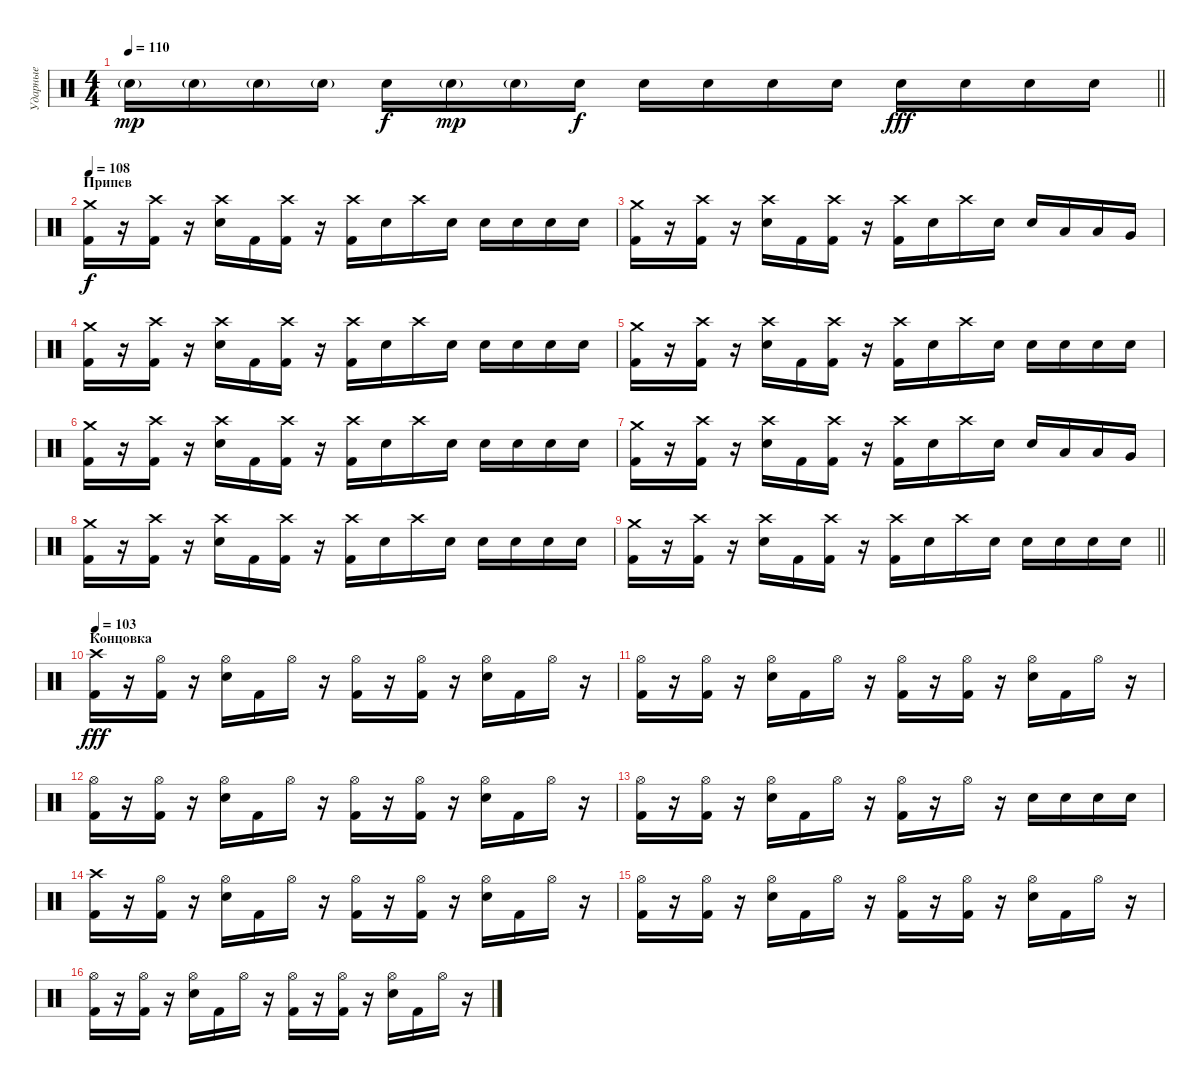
\track ("Ударные" "Ударные") {instrument percussion}
\staff {score}
\articulation defaults
\ts (4 4)
\tempo 110
\clef neutral
\barLineRight lightlight
\ks c "Electric Snare (hit)"{g}.16{dy mp} "Electric Snare (hit)"{g}.16 "Electric Snare (hit)"{g}.16 "Electric Snare (hit)"{g}.16 "Electric Snare (hit)".16{dy f} "Electric Snare (hit)"{g}.16{dy mp} "Electric Snare (hit)"{g}.16 "Electric Snare (hit)".16{dy f} "Electric Snare (hit)".16 "Electric Snare (hit)".16 "Electric Snare (hit)".16 "Electric Snare (hit)".16 "Electric Snare (hit)".16{dy fff} "Electric Snare (hit)".16 "Electric Snare (hit)".16 "Electric Snare (hit)".16
|
\section ("" "Припев")
\tempo 108
("Crash medium (hit)" "Kick (hit) 2").16{dy f} r.16 ("Crash high (hit)" "Kick (hit) 2").16 r.16 ("Crash high (hit)" "Electric Snare (hit)").16 "Kick (hit) 2".16 ("Crash high (hit)" "Kick (hit) 2").16 r.16 ("Crash high (hit)" "Kick (hit) 2").16 "Electric Snare (hit)".16 "Crash high (hit)".16 "Electric Snare (hit)".16 "Electric Snare (hit)".16 "Electric Snare (hit)".16 "Electric Snare (hit)".16 "Electric Snare (hit)".16 |
("Crash medium (hit)" "Kick (hit) 2").16 r.16 ("Crash high (hit)" "Kick (hit) 2").16 r.16 ("Crash high (hit)" "Electric Snare (hit)").16 "Kick (hit) 2".16 ("Crash high (hit)" "Kick (hit) 2").16 r.16 ("Crash high (hit)" "Kick (hit) 2").16 "Electric Snare (hit)".16 "Crash high (hit)".16 "Electric Snare (hit)".16 "Electric Snare (hit)".16 "Low Tom (hit)".16 "Low Tom (hit)".16 "Very Low Tom (hit)".16 |
("Crash medium (hit)" "Kick (hit) 2").16 r.16 ("Crash high (hit)" "Kick (hit) 2").16 r.16 ("Crash high (hit)" "Electric Snare (hit)").16 "Kick (hit) 2".16 ("Crash high (hit)" "Kick (hit) 2").16 r.16 ("Crash high (hit)" "Kick (hit) 2").16 "Electric Snare (hit)".16 "Crash high (hit)".16 "Electric Snare (hit)".16 "Electric Snare (hit)".16 "Electric Snare (hit)".16 "Electric Snare (hit)".16 "Electric Snare (hit)".16 |
("Crash medium (hit)" "Kick (hit) 2").16 r.16 ("Crash high (hit)" "Kick (hit) 2").16 r.16 ("Crash high (hit)" "Electric Snare (hit)").16 "Kick (hit) 2".16 ("Crash high (hit)" "Kick (hit) 2").16 r.16 ("Crash high (hit)" "Kick (hit) 2").16 "Electric Snare (hit)".16 "Crash high (hit)".16 "Electric Snare (hit)".16 "Electric Snare (hit)".16 "Electric Snare (hit)".16 "Electric Snare (hit)".16 "Electric Snare (hit)".16 |
("Crash medium (hit)" "Kick (hit) 2").16 r.16 ("Crash high (hit)" "Kick (hit) 2").16 r.16 ("Crash high (hit)" "Electric Snare (hit)").16 "Kick (hit) 2".16 ("Crash high (hit)" "Kick (hit) 2").16 r.16 ("Crash high (hit)" "Kick (hit) 2").16 "Electric Snare (hit)".16 "Crash high (hit)".16 "Electric Snare (hit)".16 "Electric Snare (hit)".16 "Electric Snare (hit)".16 "Electric Snare (hit)".16 "Electric Snare (hit)".16 |
("Crash medium (hit)" "Kick (hit) 2").16 r.16 ("Crash high (hit)" "Kick (hit) 2").16 r.16 ("Crash high (hit)" "Electric Snare (hit)").16 "Kick (hit) 2".16 ("Crash high (hit)" "Kick (hit) 2").16 r.16 ("Crash high (hit)" "Kick (hit) 2").16 "Electric Snare (hit)".16 "Crash high (hit)".16 "Electric Snare (hit)".16 "Electric Snare (hit)".16 "Low Tom (hit)".16 "Low Tom (hit)".16 "Very Low Tom (hit)".16 |
("Crash medium (hit)" "Kick (hit) 2").16 r.16 ("Crash high (hit)" "Kick (hit) 2").16 r.16 ("Crash high (hit)" "Electric Snare (hit)").16 "Kick (hit) 2".16 ("Crash high (hit)" "Kick (hit) 2").16 r.16 ("Crash high (hit)" "Kick (hit) 2").16 "Electric Snare (hit)".16 "Crash high (hit)".16 "Electric Snare (hit)".16 "Electric Snare (hit)".16 "Electric Snare (hit)".16 "Electric Snare (hit)".16 "Electric Snare (hit)".16 |
\barLineRight lightlight
("Crash medium (hit)" "Kick (hit) 2").16 r.16 ("Crash high (hit)" "Kick (hit) 2").16 r.16 ("Crash high (hit)" "Electric Snare (hit)").16 "Kick (hit) 2".16 ("Crash high (hit)" "Kick (hit) 2").16 r.16 ("Crash high (hit)" "Kick (hit) 2").16 "Electric Snare (hit)".16 "Crash high (hit)".16 "Electric Snare (hit)".16 "Electric Snare (hit)".16 "Electric Snare (hit)".16 "Electric Snare (hit)".16 "Electric Snare (hit)".16 |
\section ("" "Концовка")
\tempo 103
("Crash high (hit)" "Kick (hit) 2").16{dy fff} r.16 ("Hi-Hat (open)" "Kick (hit) 2").16 r.16 ("Hi-Hat (open)" "Electric Snare (hit)").16 "Kick (hit) 2".16 "Hi-Hat (open)".16 r.16 ("Hi-Hat (open)" "Kick (hit) 2").16 r.16 ("Hi-Hat (open)" "Kick (hit) 2").16 r.16 ("Hi-Hat (open)" "Electric Snare (hit)").16 "Kick (hit) 2".16 "Hi-Hat (open)".16 r.16 |
("Hi-Hat (open)" "Kick (hit) 2").16 r.16 ("Hi-Hat (open)" "Kick (hit) 2").16 r.16 ("Hi-Hat (open)" "Electric Snare (hit)").16 "Kick (hit) 2".16 "Hi-Hat (open)".16 r.16 ("Hi-Hat (open)" "Kick (hit) 2").16 r.16 ("Hi-Hat (open)" "Kick (hit) 2").16 r.16 ("Hi-Hat (open)" "Electric Snare (hit)").16 "Kick (hit) 2".16 "Hi-Hat (open)".16 r.16 |
("Hi-Hat (open)" "Kick (hit) 2").16 r.16 ("Hi-Hat (open)" "Kick (hit) 2").16 r.16 ("Hi-Hat (open)" "Electric Snare (hit)").16 "Kick (hit) 2".16 "Hi-Hat (open)".16 r.16 ("Hi-Hat (open)" "Kick (hit) 2").16 r.16 ("Hi-Hat (open)" "Kick (hit) 2").16 r.16 ("Hi-Hat (open)" "Electric Snare (hit)").16 "Kick (hit) 2".16 "Hi-Hat (open)".16 r.16 |
("Hi-Hat (open)" "Kick (hit) 2").16 r.16 ("Hi-Hat (open)" "Kick (hit) 2").16 r.16 ("Hi-Hat (open)" "Electric Snare (hit)").16 "Kick (hit) 2".16 "Hi-Hat (open)".16 r.16 ("Hi-Hat (open)" "Kick (hit) 2").16 r.16 "Hi-Hat (open)".16 r.16 "Electric Snare (hit)".16 "Electric Snare (hit)".16 "Electric Snare (hit)".16 "Electric Snare (hit)".16 |
("Crash high (hit)" "Kick (hit) 2").16 r.16 ("Hi-Hat (open)" "Kick (hit) 2").16 r.16 ("Hi-Hat (open)" "Electric Snare (hit)").16 "Kick (hit) 2".16 "Hi-Hat (open)".16 r.16 ("Hi-Hat (open)" "Kick (hit) 2").16 r.16 ("Hi-Hat (open)" "Kick (hit) 2").16 r.16 ("Hi-Hat (open)" "Electric Snare (hit)").16 "Kick (hit) 2".16 "Hi-Hat (open)".16 r.16 |
("Hi-Hat (open)" "Kick (hit) 2").16 r.16 ("Hi-Hat (open)" "Kick (hit) 2").16 r.16 ("Hi-Hat (open)" "Electric Snare (hit)").16 "Kick (hit) 2".16 "Hi-Hat (open)".16 r.16 ("Hi-Hat (open)" "Kick (hit) 2").16 r.16 ("Hi-Hat (open)" "Kick (hit) 2").16 r.16 ("Hi-Hat (open)" "Electric Snare (hit)").16 "Kick (hit) 2".16 "Hi-Hat (open)".16 r.16 |
("Hi-Hat (open)" "Kick (hit) 2").16 r.16 ("Hi-Hat (open)" "Kick (hit) 2").16 r.16 ("Hi-Hat (open)" "Electric Snare (hit)").16 "Kick (hit) 2".16 "Hi-Hat (open)".16 r.16 ("Hi-Hat (open)" "Kick (hit) 2").16 r.16 ("Hi-Hat (open)" "Kick (hit) 2").16 r.16 ("Hi-Hat (open)" "Electric Snare (hit)").16 "Kick (hit) 2".16 "Hi-Hat (open)".16 r.16
